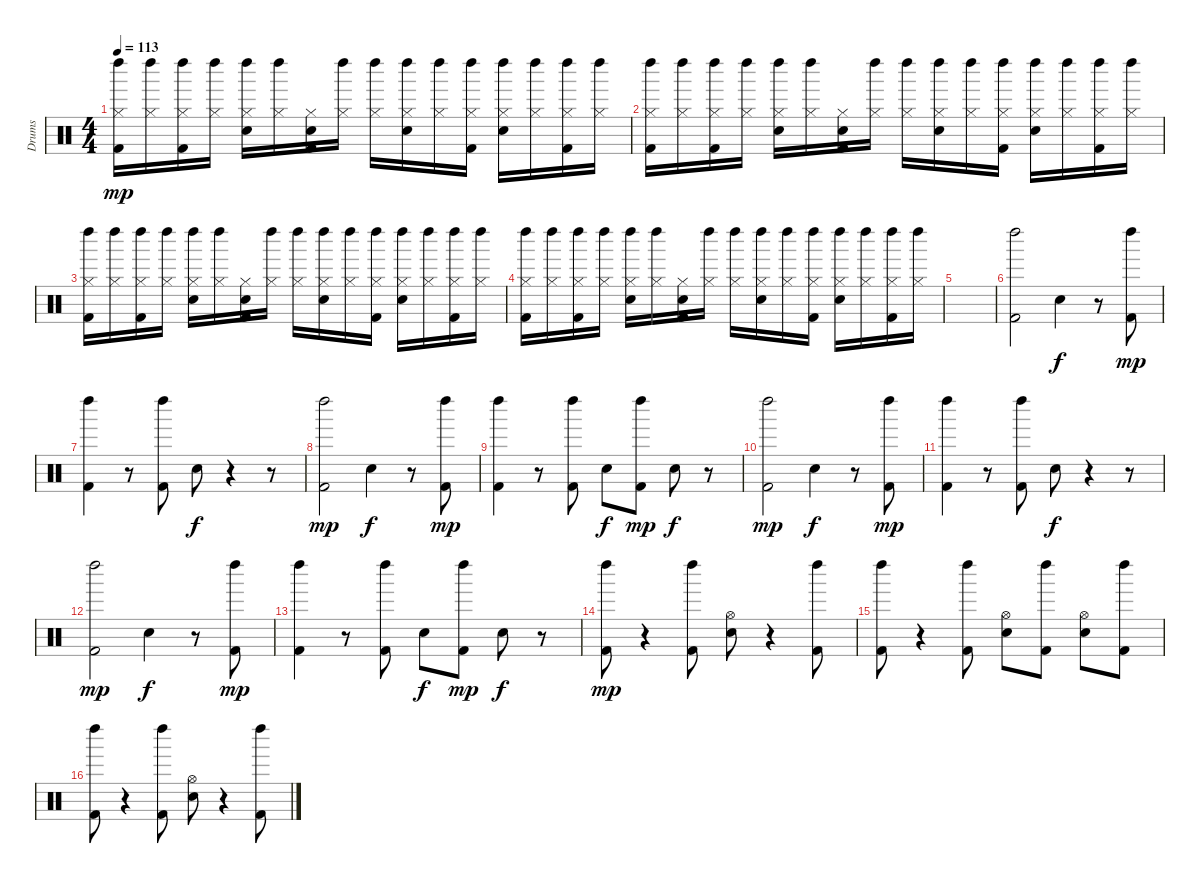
\track ("Drums" "Drums") {instrument percussion}
\staff {score}
\articulation defaults
\ts (4 4)
\tempo 113
\clef neutral
\ks c
("Hi-Hat (closed)" "Left Maraca (hit)" "Kick (hit) 2").16{dy mp} ("Hi-Hat (closed)" "Left Maraca (hit)").16 ("Hi-Hat (closed)" "Left Maraca (hit)" "Kick (hit) 2").16 ("Hi-Hat (closed)" "Left Maraca (hit)").16 ("Hi-Hat (closed)" "Left Maraca (hit)" "Snare (hit) 2").16 ("Hi-Hat (closed)" "Left Maraca (hit)").16 ("Hi-Hat (closed)" "Snare (hit)" "Kick (hit) 2").16 ("Hi-Hat (closed)" "Left Maraca (hit)").16 ("Hi-Hat (closed)" "Left Maraca (hit)").16 ("Hi-Hat (closed)" "Left Maraca (hit)" "Snare (hit) 2").16 ("Hi-Hat (closed)" "Left Maraca (hit)").16 ("Hi-Hat (closed)" "Left Maraca (hit)" "Kick (hit) 2").16 ("Hi-Hat (closed)" "Left Maraca (hit)" "Snare (hit) 2").16 ("Hi-Hat (closed)" "Left Maraca (hit)").16 ("Hi-Hat (closed)" "Left Maraca (hit)" "Kick (hit) 2").16 ("Hi-Hat (closed)" "Left Maraca (hit)").16 |
("Hi-Hat (closed)" "Left Maraca (hit)" "Kick (hit) 2").16 ("Hi-Hat (closed)" "Left Maraca (hit)").16 ("Hi-Hat (closed)" "Left Maraca (hit)" "Kick (hit) 2").16 ("Hi-Hat (closed)" "Left Maraca (hit)").16 ("Hi-Hat (closed)" "Left Maraca (hit)" "Snare (hit) 2").16 ("Hi-Hat (closed)" "Left Maraca (hit)").16 ("Hi-Hat (closed)" "Snare (hit)" "Kick (hit) 2").16 ("Hi-Hat (closed)" "Left Maraca (hit)").16 ("Hi-Hat (closed)" "Left Maraca (hit)").16 ("Hi-Hat (closed)" "Left Maraca (hit)" "Snare (hit) 2").16 ("Hi-Hat (closed)" "Left Maraca (hit)").16 ("Hi-Hat (closed)" "Left Maraca (hit)" "Kick (hit) 2").16 ("Hi-Hat (closed)" "Left Maraca (hit)" "Snare (hit) 2").16 ("Hi-Hat (closed)" "Left Maraca (hit)").16 ("Hi-Hat (closed)" "Left Maraca (hit)" "Kick (hit) 2").16 ("Hi-Hat (closed)" "Left Maraca (hit)").16 |
("Hi-Hat (closed)" "Left Maraca (hit)" "Kick (hit) 2").16 ("Hi-Hat (closed)" "Left Maraca (hit)").16 ("Hi-Hat (closed)" "Left Maraca (hit)" "Kick (hit) 2").16 ("Hi-Hat (closed)" "Left Maraca (hit)").16 ("Hi-Hat (closed)" "Left Maraca (hit)" "Snare (hit) 2").16 ("Hi-Hat (closed)" "Left Maraca (hit)").16 ("Hi-Hat (closed)" "Snare (hit)" "Kick (hit) 2").16 ("Hi-Hat (closed)" "Left Maraca (hit)").16 ("Hi-Hat (closed)" "Left Maraca (hit)").16 ("Hi-Hat (closed)" "Left Maraca (hit)" "Snare (hit) 2").16 ("Hi-Hat (closed)" "Left Maraca (hit)").16 ("Hi-Hat (closed)" "Left Maraca (hit)" "Kick (hit) 2").16 ("Hi-Hat (closed)" "Left Maraca (hit)" "Snare (hit) 2").16 ("Hi-Hat (closed)" "Left Maraca (hit)").16 ("Hi-Hat (closed)" "Left Maraca (hit)" "Kick (hit) 2").16 ("Hi-Hat (closed)" "Left Maraca (hit)").16 |
("Hi-Hat (closed)" "Left Maraca (hit)" "Kick (hit) 2").16 ("Hi-Hat (closed)" "Left Maraca (hit)").16 ("Hi-Hat (closed)" "Left Maraca (hit)" "Kick (hit) 2").16 ("Hi-Hat (closed)" "Left Maraca (hit)").16 ("Hi-Hat (closed)" "Left Maraca (hit)" "Snare (hit) 2").16 ("Hi-Hat (closed)" "Left Maraca (hit)").16 ("Hi-Hat (closed)" "Snare (hit)" "Kick (hit) 2").16 ("Hi-Hat (closed)" "Left Maraca (hit)").16 ("Hi-Hat (closed)" "Left Maraca (hit)").16 ("Hi-Hat (closed)" "Left Maraca (hit)" "Snare (hit) 2").16 ("Hi-Hat (closed)" "Left Maraca (hit)").16 ("Hi-Hat (closed)" "Left Maraca (hit)" "Kick (hit) 2").16 ("Hi-Hat (closed)" "Left Maraca (hit)" "Snare (hit) 2").16 ("Hi-Hat (closed)" "Left Maraca (hit)").16 ("Hi-Hat (closed)" "Left Maraca (hit)" "Kick (hit) 2").16 ("Hi-Hat (closed)" "Left Maraca (hit)").16 |
|
("Left Maraca (hit)" "Kick (hit) 2").2 "Snare (hit) 2".4{dy f} r.8 ("Left Maraca (hit)" "Kick (hit) 2").8{dy mp} |
("Left Maraca (hit)" "Kick (hit) 2").4 r.8 ("Left Maraca (hit)" "Kick (hit) 2").8 "Snare (hit) 2".8{dy f} r.4 r.8 |
("Left Maraca (hit)" "Kick (hit) 2").2{dy mp} "Snare (hit) 2".4{dy f} r.8 ("Left Maraca (hit)" "Kick (hit) 2").8{dy mp} |
("Left Maraca (hit)" "Kick (hit) 2").4 r.8 ("Left Maraca (hit)" "Kick (hit) 2").8 "Snare (hit) 2".8{dy f} ("Left Maraca (hit)" "Kick (hit) 2").8{dy mp} "Snare (hit) 2".8{dy f} r.8 |
("Left Maraca (hit)" "Kick (hit) 2").2{dy mp} "Snare (hit) 2".4{dy f} r.8 ("Left Maraca (hit)" "Kick (hit) 2").8{dy mp} |
("Left Maraca (hit)" "Kick (hit) 2").4 r.8 ("Left Maraca (hit)" "Kick (hit) 2").8 "Snare (hit) 2".8{dy f} r.4 r.8 |
("Left Maraca (hit)" "Kick (hit) 2").2{dy mp} "Snare (hit) 2".4{dy f} r.8 ("Left Maraca (hit)" "Kick (hit) 2").8{dy mp} |
("Left Maraca (hit)" "Kick (hit) 2").4 r.8 ("Left Maraca (hit)" "Kick (hit) 2").8 "Snare (hit) 2".8{dy f} ("Left Maraca (hit)" "Kick (hit) 2").8{dy mp} "Snare (hit) 2".8{dy f} r.8 |
("Left Maraca (hit)" "Kick (hit) 2").8{dy mp} r.4 ("Left Maraca (hit)" "Kick (hit) 2").8 ("Hi-Hat (open)" "Snare (hit) 2").8 r.4 ("Left Maraca (hit)" "Kick (hit) 2").8 |
("Left Maraca (hit)" "Kick (hit) 2").8 r.4 ("Left Maraca (hit)" "Kick (hit) 2").8 ("Hi-Hat (open)" "Snare (hit) 2").8 ("Left Maraca (hit)" "Kick (hit) 2").8 ("Hi-Hat (open)" "Snare (hit) 2").8 ("Left Maraca (hit)" "Kick (hit) 2").8 |
("Left Maraca (hit)" "Kick (hit) 2").8 r.4 ("Left Maraca (hit)" "Kick (hit) 2").8 ("Hi-Hat (open)" "Snare (hit) 2").8 r.4 ("Left Maraca (hit)" "Kick (hit) 2").8
